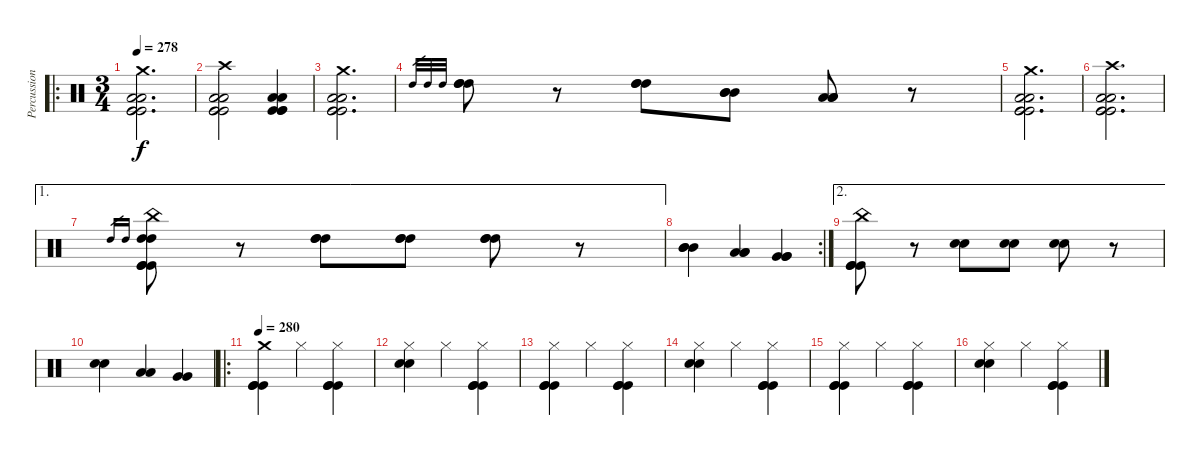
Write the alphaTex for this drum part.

\track ("Percussion" "Percussion") {instrument percussion}
\staff {score}
\articulation defaults
\ro
\ts (3 4)
\tempo 278
\clef neutral
\ks c
("Crash medium (hit)" "Low Floor Tom (hit)" "Low Floor Tom (hit)" "Kick (hit)" "Kick (hit)" "Kick (hit)").2{d dy f} |
("Crash high (hit)" "Low Floor Tom (hit)" "Low Floor Tom (hit)" "Kick (hit)" "Kick (hit)" "Kick (hit)").2 ("Low Floor Tom (hit)" "Low Floor Tom (hit)" "Kick (hit)" "Kick (hit)" "Kick (hit)").4 |
("Crash medium (hit)" "Low Floor Tom (hit)" "Low Floor Tom (hit)" "Kick (hit)" "Kick (hit)" "Kick (hit)").2{d} |
"High Tom (hit)".32{gr} "High Tom (hit)".32{gr} "High Tom (hit)".32{gr} ("High Tom (hit)" "High Tom (hit)" "High Tom (hit)").8 r.8 ("High Tom (hit)" "High Tom (hit)" "High Tom (hit)").8 ("Mid Tom (hit)" "Mid Tom (hit)" "Mid Tom (hit)").8 ("Low Tom (hit)" "Low Tom (hit)" "Low Tom (hit)").8 r.8 |
("Crash medium (hit)" "Low Floor Tom (hit)" "Low Floor Tom (hit)" "Kick (hit)" "Kick (hit)" "Kick (hit)").2{d} |
("Crash high (hit)" "Low Floor Tom (hit)" "Low Floor Tom (hit)" "Kick (hit)" "Kick (hit)" "Kick (hit)").2{d} |
\ae 1 "High Tom (hit)".16{gr} "High Tom (hit)".16{gr}
("China (hit)" "High Tom (hit)" "High Tom (hit)" "Kick (hit)" "Kick (hit)" "Kick (hit)").8 r.8 ("High Tom (hit)" "High Tom (hit)" "High Tom (hit)").8 ("High Tom (hit)" "High Tom (hit)" "High Tom (hit)").8 ("High Tom (hit)" "High Tom (hit)" "High Tom (hit)").8 r.8 |
\rc 2
("Mid Tom (hit)" "Mid Tom (hit)" "Mid Tom (hit)").4 ("Low Tom (hit)" "Low Tom (hit)" "Low Tom (hit)").4 ("Very Low Tom (hit)" "Very Low Tom (hit)" "Very Low Tom (hit)").4 |
\ae 2
("China (hit)" "Kick (hit)" "Kick (hit)" "Kick (hit)").8 r.8 ("Electric Snare (hit)" "Snare (hit) 2").8 ("Electric Snare (hit)" "Snare (hit) 2").8 ("Electric Snare (hit)" "Snare (hit) 2").8 r.8 |
("Electric Snare (hit)" "Snare (hit) 2").4 ("Low Tom (hit)" "Low Tom (hit)").4 ("Very Low Tom (hit)" "Very Low Tom (hit)").4 |
\ro
\tempo 280
("Crash medium (hit)" "Kick (hit)" "Kick (hit)" "Kick (hit)").4 "Hi-Hat (closed)".4 ("Hi-Hat (closed)" "Kick (hit)" "Kick (hit)" "Kick (hit)").4 |
("Hi-Hat (closed)" "Electric Snare (hit)" "Snare (hit) 2").4 "Hi-Hat (closed)".4 ("Hi-Hat (closed)" "Kick (hit)" "Kick (hit)" "Kick (hit)").4 |
("Hi-Hat (closed)" "Kick (hit)" "Kick (hit)" "Kick (hit)").4 "Hi-Hat (closed)".4 ("Hi-Hat (closed)" "Kick (hit)" "Kick (hit)" "Kick (hit)").4 |
("Hi-Hat (closed)" "Electric Snare (hit)" "Snare (hit) 2").4 "Hi-Hat (closed)".4 ("Hi-Hat (closed)" "Kick (hit)" "Kick (hit)" "Kick (hit)").4 |
("Hi-Hat (closed)" "Kick (hit)" "Kick (hit)" "Kick (hit)").4 "Hi-Hat (closed)".4 ("Hi-Hat (closed)" "Kick (hit)" "Kick (hit)" "Kick (hit)").4 |
("Hi-Hat (closed)" "Electric Snare (hit)" "Snare (hit) 2").4 "Hi-Hat (closed)".4 ("Hi-Hat (closed)" "Kick (hit)" "Kick (hit)" "Kick (hit)").4
